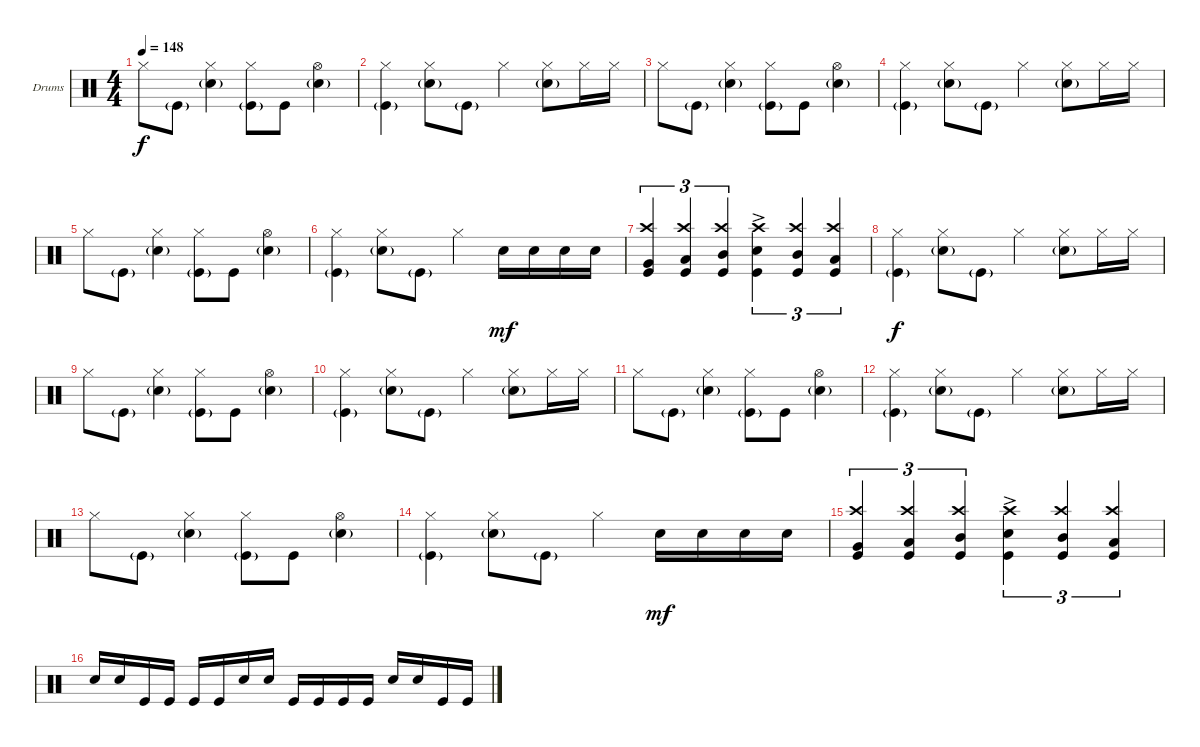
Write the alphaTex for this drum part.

\bracketExtendMode groupsimilarinstruments
\firstSystemTrackNameOrientation horizontal
\otherSystemsTrackNameOrientation horizontal
\track ("Drumkit" "Drums") {instrument percussion}
\staff {score}
\articulation defaults
\ts (4 4)
\tempo 148
\clef neutral
\scale
0.333333
\ks c "Hi-Hat (closed)".8{dy f} "Kick (hit)"{g}.8
("Snare (hit) 2"{g} "Hi-Hat (closed)").4 ("Kick (hit)"{g} "Hi-Hat (closed)").8 "Kick (hit)".8 ("Snare (hit) 2"{g} "Hi-Hat (open)").4 |
\scale
0.333333 ("Kick (hit)"{g} "Hi-Hat (closed)").4 ("Snare (hit) 2"{g} "Hi-Hat (closed)").8 "Kick (hit)"{g}.8 "Hi-Hat (closed)".4 ("Snare (hit) 2"{g} "Hi-Hat (closed)").8 "Hi-Hat (closed)".16 "Hi-Hat (closed)".16 |
\scale
0.333333 "Hi-Hat (closed)".8 "Kick (hit)"{g}.8 ("Snare (hit) 2"{g} "Hi-Hat (closed)").4 ("Kick (hit)"{g} "Hi-Hat (closed)").8 "Kick (hit)".8 ("Snare (hit) 2"{g} "Hi-Hat (open)").4 |
\scale
0.333333 ("Kick (hit)"{g} "Hi-Hat (closed)").4 ("Snare (hit) 2"{g} "Hi-Hat (closed)").8 "Kick (hit)"{g}.8 "Hi-Hat (closed)".4 ("Snare (hit) 2"{g} "Hi-Hat (closed)").8 "Hi-Hat (closed)".16 "Hi-Hat (closed)".16 |
\scale
0.333333 "Hi-Hat (closed)".8 "Kick (hit)"{g}.8 ("Snare (hit) 2"{g} "Hi-Hat (closed)").4 ("Kick (hit)"{g} "Hi-Hat (closed)").8 "Kick (hit)".8 ("Snare (hit) 2"{g} "Hi-Hat (open)").4 |
\scale
0.333333 ("Kick (hit)"{g} "Hi-Hat (closed)").4 ("Snare (hit) 2"{g} "Hi-Hat (closed)").8 "Kick (hit)"{g}.8 "Hi-Hat (closed)".4 "Snare (hit) 2".16{dy mf} "Snare (hit) 2".16 "Snare (hit) 2".16 "Snare (hit) 2".16 |
\scale
0.333333 ("Kick (hit)" "Crash high (hit)" "Very Low Tom (hit)").4{tu (3 2)} ("Kick (hit)" "Crash high (hit)" "Low Tom (hit)").4{tu (3 2)} ("Kick (hit)" "Crash high (hit)" "Mid Tom (hit)").4{tu (3 2)} ("Kick (hit)" "Crash high (hit)" "Snare (hit) 2"{ac}).4{tu (3 2)} ("Kick (hit)" "Crash high (hit)" "Mid Tom (hit)").4{tu (3 2)} ("Kick (hit)" "Crash high (hit)" "Low Tom (hit)").4{tu (3 2)} |
\scale
0.333333 ("Kick (hit)"{g} "Hi-Hat (closed)").4{dy f} ("Snare (hit) 2"{g} "Hi-Hat (closed)").8 "Kick (hit)"{g}.8 "Hi-Hat (closed)".4 ("Snare (hit) 2"{g} "Hi-Hat (closed)").8 "Hi-Hat (closed)".16 "Hi-Hat (closed)".16 |
\scale
0.333333 "Hi-Hat (closed)".8 "Kick (hit)"{g}.8 ("Snare (hit) 2"{g} "Hi-Hat (closed)").4 ("Kick (hit)"{g} "Hi-Hat (closed)").8 "Kick (hit)".8 ("Snare (hit) 2"{g} "Hi-Hat (open)").4 |
\scale
0.333333 ("Kick (hit)"{g} "Hi-Hat (closed)").4 ("Snare (hit) 2"{g} "Hi-Hat (closed)").8 "Kick (hit)"{g}.8 "Hi-Hat (closed)".4 ("Snare (hit) 2"{g} "Hi-Hat (closed)").8 "Hi-Hat (closed)".16 "Hi-Hat (closed)".16 |
\scale
0.333333 "Hi-Hat (closed)".8 "Kick (hit)"{g}.8 ("Snare (hit) 2"{g} "Hi-Hat (closed)").4 ("Kick (hit)"{g} "Hi-Hat (closed)").8 "Kick (hit)".8 ("Snare (hit) 2"{g} "Hi-Hat (open)").4 |
\scale
0.333333 ("Kick (hit)"{g} "Hi-Hat (closed)").4 ("Snare (hit) 2"{g} "Hi-Hat (closed)").8 "Kick (hit)"{g}.8 "Hi-Hat (closed)".4 ("Snare (hit) 2"{g} "Hi-Hat (closed)").8 "Hi-Hat (closed)".16 "Hi-Hat (closed)".16 |
\scale
0.333333 "Hi-Hat (closed)".8 "Kick (hit)"{g}.8 ("Snare (hit) 2"{g} "Hi-Hat (closed)").4 ("Kick (hit)"{g} "Hi-Hat (closed)").8 "Kick (hit)".8 ("Snare (hit) 2"{g} "Hi-Hat (open)").4 |
\scale
0.333333 ("Kick (hit)"{g} "Hi-Hat (closed)").4 ("Snare (hit) 2"{g} "Hi-Hat (closed)").8 "Kick (hit)"{g}.8 "Hi-Hat (closed)".4 "Snare (hit) 2".16{dy mf} "Snare (hit) 2".16 "Snare (hit) 2".16 "Snare (hit) 2".16 |
\scale
0.333333 ("Kick (hit)" "Crash high (hit)" "Very Low Tom (hit)").4{tu (3 2)} ("Kick (hit)" "Crash high (hit)" "Low Tom (hit)").4{tu (3 2)} ("Kick (hit)" "Crash high (hit)" "Mid Tom (hit)").4{tu (3 2)} ("Kick (hit)" "Crash high (hit)" "Snare (hit) 2"{ac}).4{tu (3 2)} ("Kick (hit)" "Crash high (hit)" "Mid Tom (hit)").4{tu (3 2)} ("Kick (hit)" "Crash high (hit)" "Low Tom (hit)").4{tu (3 2)} |
\scale
0.333333 "Snare (hit) 2".16 "Snare (hit) 2".16 "Kick (hit)".16 "Kick (hit)".16 "Kick (hit)".16 "Kick (hit)".16 "Snare (hit) 2".16 "Snare (hit) 2".16 "Kick (hit)".16 "Kick (hit)".16 "Kick (hit)".16 "Kick (hit)".16 "Snare (hit) 2".16 "Snare (hit) 2".16 "Kick (hit)".16 "Kick (hit)".16
